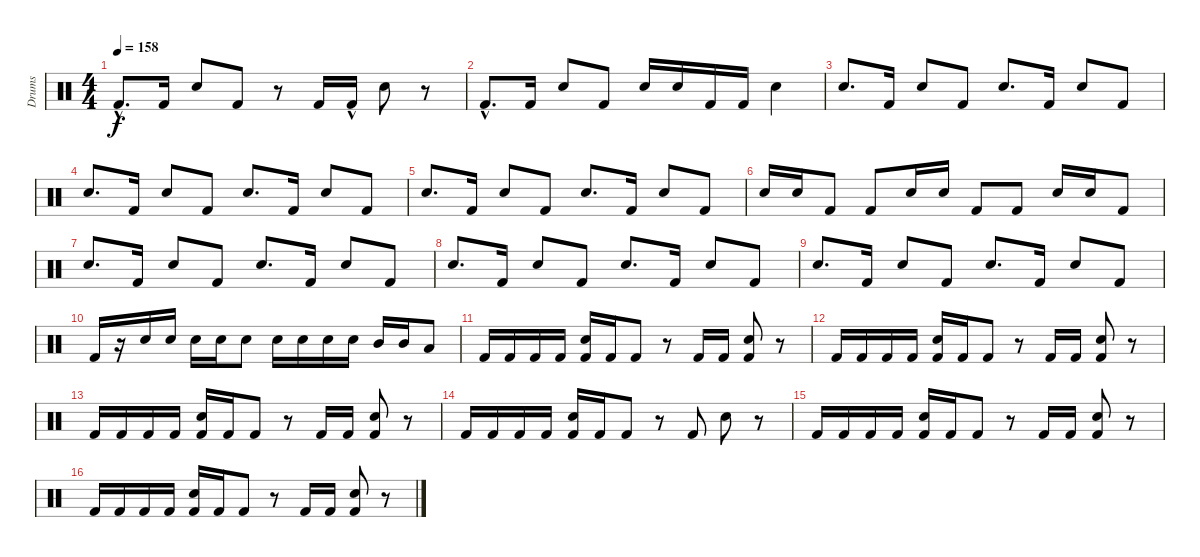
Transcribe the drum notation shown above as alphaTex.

\track ("Drums" "Drums") {instrument percussion}
\staff {score}
\articulation defaults
\ts (4 4)
\tempo 158
\clef neutral
\ks c "Kick (hit) 2"{hac}.8{d dy f} "Kick (hit) 2".16 "Snare (hit) 2".8 "Kick (hit) 2".8
r.8 "Kick (hit) 2".16 "Kick (hit) 2"{hac}.16 "Snare (hit) 2".8 r.8 |
"Kick (hit) 2"{hac}.8{d} "Kick (hit) 2".16 "Snare (hit) 2".8 "Kick (hit) 2".8 "Snare (hit) 2".16 "Snare (hit) 2".16 "Kick (hit) 2".16 "Kick (hit) 2".16 "Snare (hit) 2".4 |
"Snare (hit) 2".8{d} "Kick (hit) 2".16 "Snare (hit) 2".8 "Kick (hit) 2".8 "Snare (hit) 2".8{d} "Kick (hit) 2".16 "Snare (hit) 2".8 "Kick (hit) 2".8 |
"Snare (hit) 2".8{d} "Kick (hit) 2".16 "Snare (hit) 2".8 "Kick (hit) 2".8 "Snare (hit) 2".8{d} "Kick (hit) 2".16 "Snare (hit) 2".8 "Kick (hit) 2".8 |
"Snare (hit) 2".8{d} "Kick (hit) 2".16 "Snare (hit) 2".8 "Kick (hit) 2".8 "Snare (hit) 2".8{d} "Kick (hit) 2".16 "Snare (hit) 2".8 "Kick (hit) 2".8 |
"Snare (hit) 2".16 "Snare (hit) 2".16 "Kick (hit) 2".8 "Kick (hit) 2".8 "Snare (hit) 2".16 "Snare (hit) 2".16 "Kick (hit) 2".8 "Kick (hit) 2".8 "Snare (hit) 2".16 "Snare (hit) 2".16 "Kick (hit) 2".8 |
"Snare (hit) 2".8{d} "Kick (hit) 2".16 "Snare (hit) 2".8 "Kick (hit) 2".8 "Snare (hit) 2".8{d} "Kick (hit) 2".16 "Snare (hit) 2".8 "Kick (hit) 2".8 |
"Snare (hit) 2".8{d} "Kick (hit) 2".16 "Snare (hit) 2".8 "Kick (hit) 2".8 "Snare (hit) 2".8{d} "Kick (hit) 2".16 "Snare (hit) 2".8 "Kick (hit) 2".8 |
"Snare (hit) 2".8{d} "Kick (hit) 2".16 "Snare (hit) 2".8 "Kick (hit) 2".8 "Snare (hit) 2".8{d} "Kick (hit) 2".16 "Snare (hit) 2".8 "Kick (hit) 2".8 |
"Kick (hit) 2".16 r.16 "Snare (hit) 2".16 "Snare (hit) 2".16 "Snare (hit) 2".16 "Snare (hit) 2".16 "Snare (hit) 2".8 "Snare (hit) 2".16 "Snare (hit) 2".16 "Snare (hit) 2".16 "Snare (hit) 2".16 "Mid Tom (hit)".16 "Mid Tom (hit)".16 "Low Tom (hit)".8 |
"Kick (hit) 2".16 "Kick (hit) 2".16 "Kick (hit) 2".16 "Kick (hit) 2".16 ("Snare (hit) 2" "Kick (hit) 2").16 "Kick (hit) 2".16 "Kick (hit) 2".8 r.8 "Kick (hit) 2".16 "Kick (hit) 2".16 ("Snare (hit) 2" "Kick (hit) 2").8 r.8 |
"Kick (hit) 2".16 "Kick (hit) 2".16 "Kick (hit) 2".16 "Kick (hit) 2".16 ("Snare (hit) 2" "Kick (hit) 2").16 "Kick (hit) 2".16 "Kick (hit) 2".8 r.8 "Kick (hit) 2".16 "Kick (hit) 2".16 ("Snare (hit) 2" "Kick (hit) 2").8 r.8 |
"Kick (hit) 2".16 "Kick (hit) 2".16 "Kick (hit) 2".16 "Kick (hit) 2".16 ("Snare (hit) 2" "Kick (hit) 2").16 "Kick (hit) 2".16 "Kick (hit) 2".8 r.8 "Kick (hit) 2".16 "Kick (hit) 2".16 ("Snare (hit) 2" "Kick (hit) 2").8 r.8 |
"Kick (hit) 2".16 "Kick (hit) 2".16 "Kick (hit) 2".16 "Kick (hit) 2".16 ("Snare (hit) 2" "Kick (hit) 2").16 "Kick (hit) 2".16 "Kick (hit) 2".8 r.8 "Kick (hit) 2".8 "Snare (hit) 2".8 r.8 |
"Kick (hit) 2".16 "Kick (hit) 2".16 "Kick (hit) 2".16 "Kick (hit) 2".16 ("Snare (hit) 2" "Kick (hit) 2").16 "Kick (hit) 2".16 "Kick (hit) 2".8 r.8 "Kick (hit) 2".16 "Kick (hit) 2".16 ("Snare (hit) 2" "Kick (hit) 2").8 r.8 |
"Kick (hit) 2".16 "Kick (hit) 2".16 "Kick (hit) 2".16 "Kick (hit) 2".16 ("Snare (hit) 2" "Kick (hit) 2").16 "Kick (hit) 2".16 "Kick (hit) 2".8 r.8 "Kick (hit) 2".16 "Kick (hit) 2".16 ("Snare (hit) 2" "Kick (hit) 2").8 r.8
